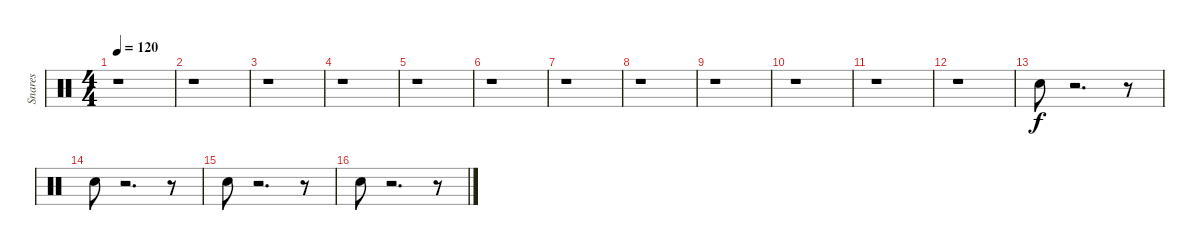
\track ("Snares              " "Snares    ") {instrument percussion}
\staff {score}
\articulation defaults
\ts (4 4)
\tempo 120
\clef neutral
\ks c
r.1{dy f} |
r.1 |
r.1 |
r.1 |
r.1 |
r.1 |
r.1 |
r.1 |
r.1 |
r.1 |
r.1 |
r.1 |
"Snare (hit) 2".8 r.2{d} r.8 |
"Snare (hit) 2".8 r.2{d} r.8 |
"Snare (hit) 2".8 r.2{d} r.8 |
"Snare (hit) 2".8 r.2{d} r.8
